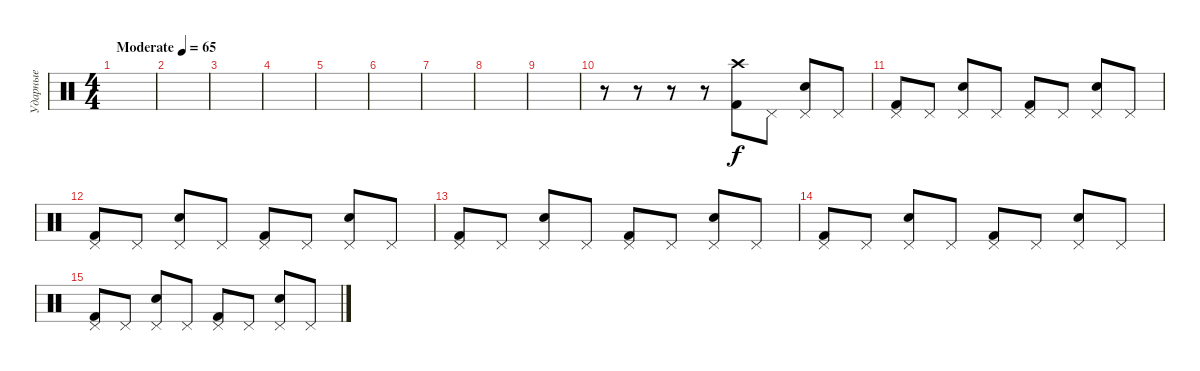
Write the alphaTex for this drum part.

\track ("Ударные" "Ударные") {instrument percussion}
\staff {score}
\articulation defaults
\ts (4 4)
\tempo (65 "Moderate")
\clef neutral
\ks c
|
|
|
|
|
|
|
|
|
r.8 r.8 r.8 r.8 ("Crash high (hit)" "Kick (hit) 2").8 "Pedal Hi-Hat (hit)".8 ("Pedal Hi-Hat (hit)" "Electric Snare (hit)").8 "Pedal Hi-Hat (hit)".8 |
("Pedal Hi-Hat (hit)" "Kick (hit) 2").8 "Pedal Hi-Hat (hit)".8 ("Pedal Hi-Hat (hit)" "Electric Snare (hit)").8 "Pedal Hi-Hat (hit)".8 ("Pedal Hi-Hat (hit)" "Kick (hit) 2").8 "Pedal Hi-Hat (hit)".8 ("Pedal Hi-Hat (hit)" "Electric Snare (hit)").8 "Pedal Hi-Hat (hit)".8 |
("Pedal Hi-Hat (hit)" "Kick (hit) 2").8 "Pedal Hi-Hat (hit)".8 ("Pedal Hi-Hat (hit)" "Electric Snare (hit)").8 "Pedal Hi-Hat (hit)".8 ("Pedal Hi-Hat (hit)" "Kick (hit) 2").8 "Pedal Hi-Hat (hit)".8 ("Pedal Hi-Hat (hit)" "Electric Snare (hit)").8 "Pedal Hi-Hat (hit)".8 |
("Pedal Hi-Hat (hit)" "Kick (hit) 2").8 "Pedal Hi-Hat (hit)".8 ("Pedal Hi-Hat (hit)" "Electric Snare (hit)").8 "Pedal Hi-Hat (hit)".8 ("Pedal Hi-Hat (hit)" "Kick (hit) 2").8 "Pedal Hi-Hat (hit)".8 ("Pedal Hi-Hat (hit)" "Electric Snare (hit)").8 "Pedal Hi-Hat (hit)".8 |
("Pedal Hi-Hat (hit)" "Kick (hit) 2").8 "Pedal Hi-Hat (hit)".8 ("Pedal Hi-Hat (hit)" "Electric Snare (hit)").8 "Pedal Hi-Hat (hit)".8 ("Pedal Hi-Hat (hit)" "Kick (hit) 2").8 "Pedal Hi-Hat (hit)".8 ("Pedal Hi-Hat (hit)" "Electric Snare (hit)").8 "Pedal Hi-Hat (hit)".8 |
("Pedal Hi-Hat (hit)" "Kick (hit) 2").8 "Pedal Hi-Hat (hit)".8 ("Pedal Hi-Hat (hit)" "Electric Snare (hit)").8 "Pedal Hi-Hat (hit)".8 ("Pedal Hi-Hat (hit)" "Kick (hit) 2").8 "Pedal Hi-Hat (hit)".8 ("Pedal Hi-Hat (hit)" "Electric Snare (hit)").8 "Pedal Hi-Hat (hit)".8
